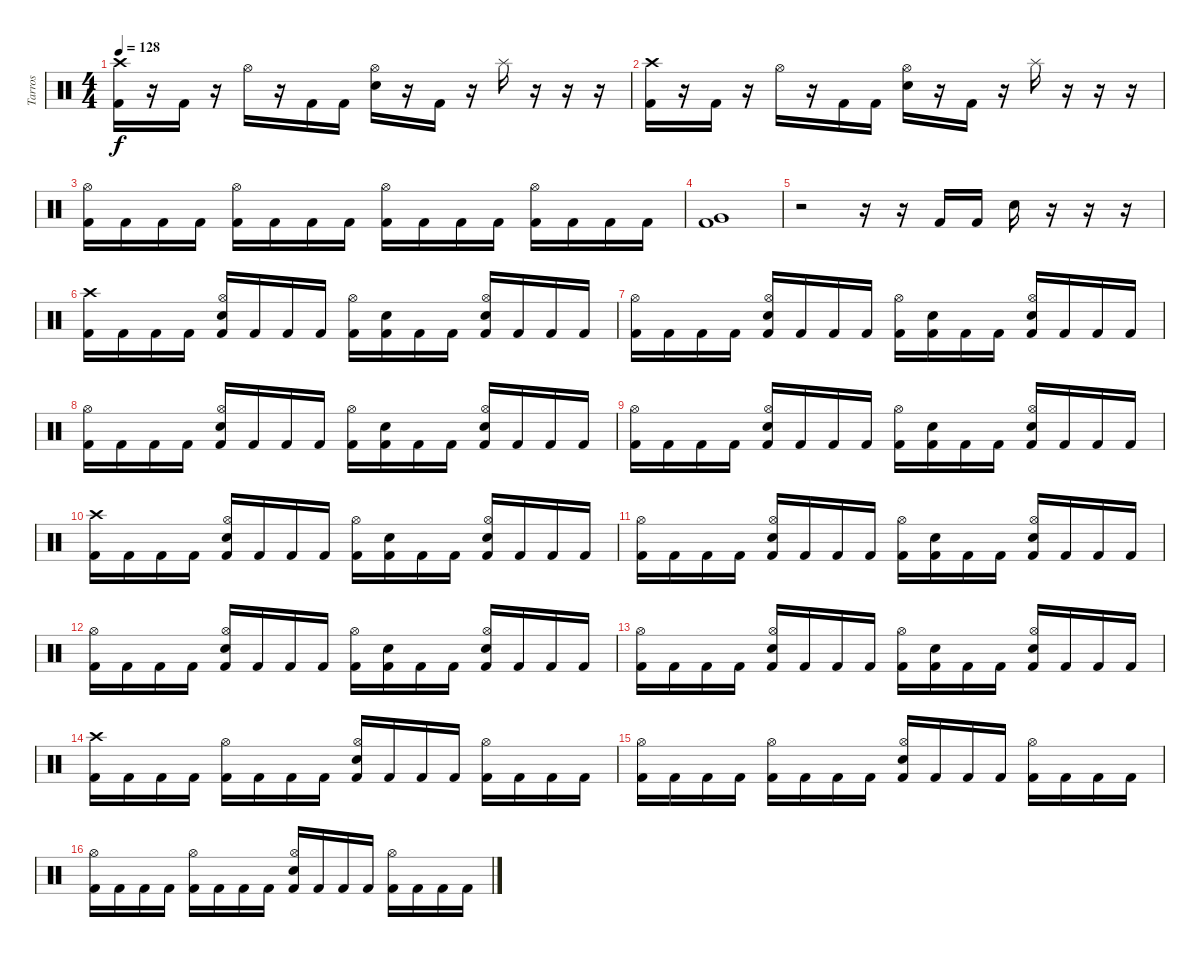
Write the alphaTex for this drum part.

\track ("Tarros" "Tarros") {instrument percussion}
\staff {score}
\articulation defaults
\ts (4 4)
\tempo 128
\clef neutral
\ks c
("Crash high (hit)" "Kick (hit) 2").16{dy f} r.16 "Kick (hit) 2".16 r.16 "Hi-Hat (open)".16 r.16 "Kick (hit) 2".16 "Kick (hit) 2".16 ("Hi-Hat (open)" "Electric Snare (hit)").16 r.16 "Kick (hit) 2".16 r.16 "Splash (hit)".16 r.16 r.16 r.16 |
("Crash high (hit)" "Kick (hit) 2").16 r.16 "Kick (hit) 2".16 r.16 "Hi-Hat (open)".16 r.16 "Kick (hit) 2".16 "Kick (hit) 2".16 ("Hi-Hat (open)" "Electric Snare (hit)").16 r.16 "Kick (hit) 2".16 r.16 "Splash (hit)".16 r.16 r.16 r.16 |
("Hi-Hat (open)" "Kick (hit) 2").16 "Kick (hit) 2".16 "Kick (hit) 2".16 "Kick (hit) 2".16 ("Hi-Hat (open)" "Kick (hit) 2").16 "Kick (hit) 2".16 "Kick (hit) 2".16 "Kick (hit) 2".16 ("Hi-Hat (open)" "Kick (hit) 2").16 "Kick (hit) 2".16 "Kick (hit) 2".16 "Kick (hit) 2".16 ("Hi-Hat (open)" "Kick (hit) 2").16 "Kick (hit) 2".16 "Kick (hit) 2".16 "Kick (hit) 2".16 |
("Very Low Tom (hit)" "Kick (hit) 2").1 |
r.2 r.16 r.16 "Kick (hit) 2".16 "Kick (hit) 2".16 "Electric Snare (hit)".16 r.16 r.16 r.16 |
("Crash high (hit)" "Kick (hit) 2").16 "Kick (hit) 2".16 "Kick (hit) 2".16 "Kick (hit) 2".16 ("Hi-Hat (open)" "Electric Snare (hit)" "Kick (hit) 2").16 "Kick (hit) 2".16 "Kick (hit) 2".16 "Kick (hit) 2".16 ("Hi-Hat (open)" "Kick (hit) 2").16 ("Electric Snare (hit)" "Kick (hit) 2").16 "Kick (hit) 2".16 "Kick (hit) 2".16 ("Hi-Hat (open)" "Electric Snare (hit)" "Kick (hit) 2").16 "Kick (hit) 2".16 "Kick (hit) 2".16 "Kick (hit) 2".16 |
("Hi-Hat (open)" "Kick (hit) 2").16 "Kick (hit) 2".16 "Kick (hit) 2".16 "Kick (hit) 2".16 ("Hi-Hat (open)" "Electric Snare (hit)" "Kick (hit) 2").16 "Kick (hit) 2".16 "Kick (hit) 2".16 "Kick (hit) 2".16 ("Hi-Hat (open)" "Kick (hit) 2").16 ("Electric Snare (hit)" "Kick (hit) 2").16 "Kick (hit) 2".16 "Kick (hit) 2".16 ("Hi-Hat (open)" "Electric Snare (hit)" "Kick (hit) 2").16 "Kick (hit) 2".16 "Kick (hit) 2".16 "Kick (hit) 2".16 |
("Hi-Hat (open)" "Kick (hit) 2").16 "Kick (hit) 2".16 "Kick (hit) 2".16 "Kick (hit) 2".16 ("Hi-Hat (open)" "Electric Snare (hit)" "Kick (hit) 2").16 "Kick (hit) 2".16 "Kick (hit) 2".16 "Kick (hit) 2".16 ("Hi-Hat (open)" "Kick (hit) 2").16 ("Electric Snare (hit)" "Kick (hit) 2").16 "Kick (hit) 2".16 "Kick (hit) 2".16 ("Hi-Hat (open)" "Electric Snare (hit)" "Kick (hit) 2").16 "Kick (hit) 2".16 "Kick (hit) 2".16 "Kick (hit) 2".16 |
("Hi-Hat (open)" "Kick (hit) 2").16 "Kick (hit) 2".16 "Kick (hit) 2".16 "Kick (hit) 2".16 ("Hi-Hat (open)" "Electric Snare (hit)" "Kick (hit) 2").16 "Kick (hit) 2".16 "Kick (hit) 2".16 "Kick (hit) 2".16 ("Hi-Hat (open)" "Kick (hit) 2").16 ("Electric Snare (hit)" "Kick (hit) 2").16 "Kick (hit) 2".16 "Kick (hit) 2".16 ("Hi-Hat (open)" "Electric Snare (hit)" "Kick (hit) 2").16 "Kick (hit) 2".16 "Kick (hit) 2".16 "Kick (hit) 2".16 |
("Crash high (hit)" "Kick (hit) 2").16 "Kick (hit) 2".16 "Kick (hit) 2".16 "Kick (hit) 2".16 ("Hi-Hat (open)" "Electric Snare (hit)" "Kick (hit) 2").16 "Kick (hit) 2".16 "Kick (hit) 2".16 "Kick (hit) 2".16 ("Hi-Hat (open)" "Kick (hit) 2").16 ("Electric Snare (hit)" "Kick (hit) 2").16 "Kick (hit) 2".16 "Kick (hit) 2".16 ("Hi-Hat (open)" "Electric Snare (hit)" "Kick (hit) 2").16 "Kick (hit) 2".16 "Kick (hit) 2".16 "Kick (hit) 2".16 |
("Hi-Hat (open)" "Kick (hit) 2").16 "Kick (hit) 2".16 "Kick (hit) 2".16 "Kick (hit) 2".16 ("Hi-Hat (open)" "Electric Snare (hit)" "Kick (hit) 2").16 "Kick (hit) 2".16 "Kick (hit) 2".16 "Kick (hit) 2".16 ("Hi-Hat (open)" "Kick (hit) 2").16 ("Electric Snare (hit)" "Kick (hit) 2").16 "Kick (hit) 2".16 "Kick (hit) 2".16 ("Hi-Hat (open)" "Electric Snare (hit)" "Kick (hit) 2").16 "Kick (hit) 2".16 "Kick (hit) 2".16 "Kick (hit) 2".16 |
("Hi-Hat (open)" "Kick (hit) 2").16 "Kick (hit) 2".16 "Kick (hit) 2".16 "Kick (hit) 2".16 ("Hi-Hat (open)" "Electric Snare (hit)" "Kick (hit) 2").16 "Kick (hit) 2".16 "Kick (hit) 2".16 "Kick (hit) 2".16 ("Hi-Hat (open)" "Kick (hit) 2").16 ("Electric Snare (hit)" "Kick (hit) 2").16 "Kick (hit) 2".16 "Kick (hit) 2".16 ("Hi-Hat (open)" "Electric Snare (hit)" "Kick (hit) 2").16 "Kick (hit) 2".16 "Kick (hit) 2".16 "Kick (hit) 2".16 |
("Hi-Hat (open)" "Kick (hit) 2").16 "Kick (hit) 2".16 "Kick (hit) 2".16 "Kick (hit) 2".16 ("Hi-Hat (open)" "Electric Snare (hit)" "Kick (hit) 2").16 "Kick (hit) 2".16 "Kick (hit) 2".16 "Kick (hit) 2".16 ("Hi-Hat (open)" "Kick (hit) 2").16 ("Electric Snare (hit)" "Kick (hit) 2").16 "Kick (hit) 2".16 "Kick (hit) 2".16 ("Hi-Hat (open)" "Electric Snare (hit)" "Kick (hit) 2").16 "Kick (hit) 2".16 "Kick (hit) 2".16 "Kick (hit) 2".16 |
("Crash high (hit)" "Kick (hit) 2").16 "Kick (hit) 2".16 "Kick (hit) 2".16 "Kick (hit) 2".16 ("Hi-Hat (open)" "Kick (hit) 2").16 "Kick (hit) 2".16 "Kick (hit) 2".16 "Kick (hit) 2".16 ("Hi-Hat (open)" "Electric Snare (hit)" "Kick (hit) 2").16 "Kick (hit) 2".16 "Kick (hit) 2".16 "Kick (hit) 2".16 ("Hi-Hat (open)" "Kick (hit) 2").16 "Kick (hit) 2".16 "Kick (hit) 2".16 "Kick (hit) 2".16 |
("Hi-Hat (open)" "Kick (hit) 2").16 "Kick (hit) 2".16 "Kick (hit) 2".16 "Kick (hit) 2".16 ("Hi-Hat (open)" "Kick (hit) 2").16 "Kick (hit) 2".16 "Kick (hit) 2".16 "Kick (hit) 2".16 ("Hi-Hat (open)" "Electric Snare (hit)" "Kick (hit) 2").16 "Kick (hit) 2".16 "Kick (hit) 2".16 "Kick (hit) 2".16 ("Hi-Hat (open)" "Kick (hit) 2").16 "Kick (hit) 2".16 "Kick (hit) 2".16 "Kick (hit) 2".16 |
("Hi-Hat (open)" "Kick (hit) 2").16 "Kick (hit) 2".16 "Kick (hit) 2".16 "Kick (hit) 2".16 ("Hi-Hat (open)" "Kick (hit) 2").16 "Kick (hit) 2".16 "Kick (hit) 2".16 "Kick (hit) 2".16 ("Hi-Hat (open)" "Electric Snare (hit)" "Kick (hit) 2").16 "Kick (hit) 2".16 "Kick (hit) 2".16 "Kick (hit) 2".16 ("Hi-Hat (open)" "Kick (hit) 2").16 "Kick (hit) 2".16 "Kick (hit) 2".16 "Kick (hit) 2".16
